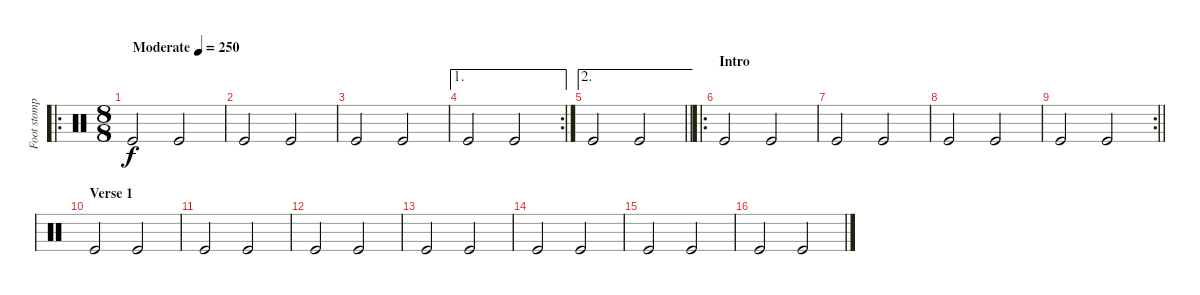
\track ("Foot stomp!" "Foot stomp") {instrument percussion}
\staff {score}
\articulation defaults
\ro
\ts (8 8)
\tempo (250 "Moderate")
\clef neutral
\ks c "Kick (hit)".2{dy f} "Kick (hit)".2
|
"Kick (hit)".2 "Kick (hit)".2 |
"Kick (hit)".2 "Kick (hit)".2 |
\ae 1
\rc 2 "Kick (hit)".2 "Kick (hit)".2
|
\ae 2
\barLineRight lightlight "Kick (hit)".2 "Kick (hit)".2
|
\ro
\section ("" "Intro")
"Kick (hit)".2 "Kick (hit)".2 |
"Kick (hit)".2 "Kick (hit)".2 |
"Kick (hit)".2 "Kick (hit)".2 |
\rc 2
\barLineRight lightlight "Kick (hit)".2 "Kick (hit)".2
|
\section ("" "Verse 1")
"Kick (hit)".2 "Kick (hit)".2 |
"Kick (hit)".2 "Kick (hit)".2 |
"Kick (hit)".2 "Kick (hit)".2 |
"Kick (hit)".2 "Kick (hit)".2 |
"Kick (hit)".2 "Kick (hit)".2 |
"Kick (hit)".2 "Kick (hit)".2 |
"Kick (hit)".2 "Kick (hit)".2
